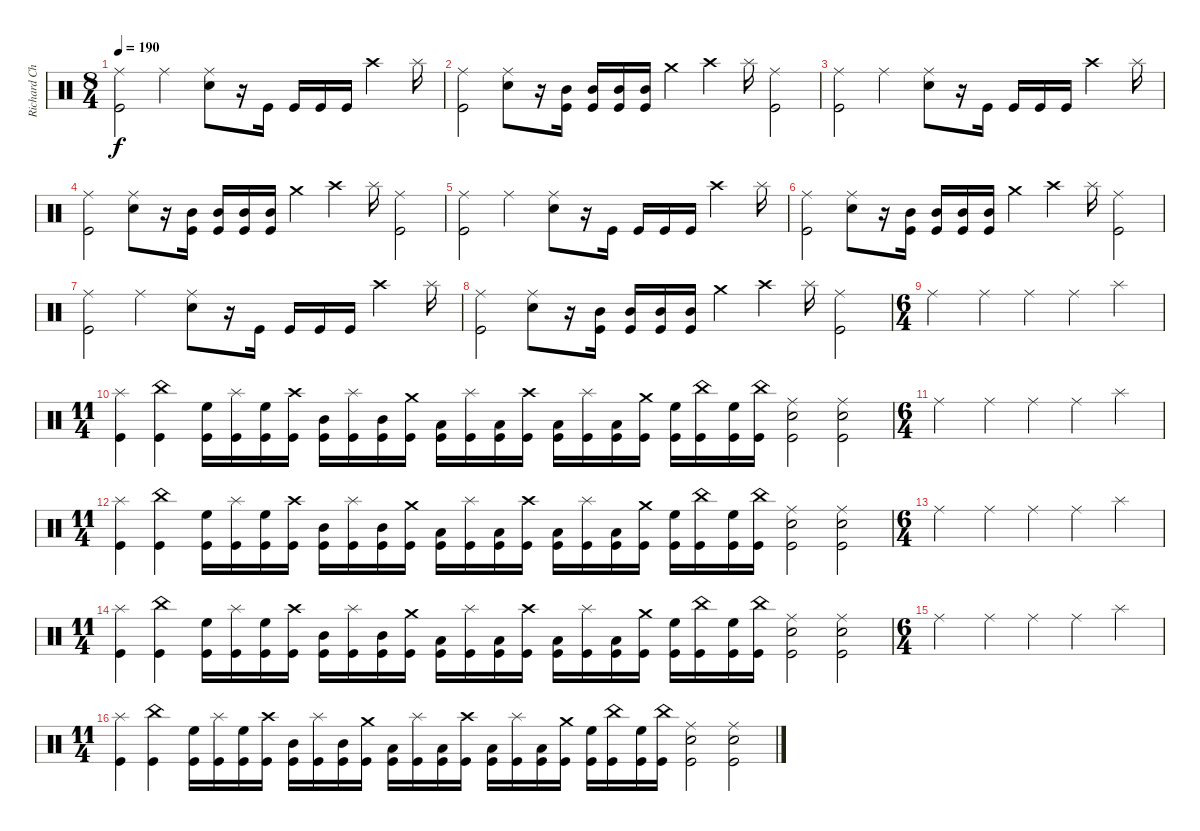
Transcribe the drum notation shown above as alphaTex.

\track ("Richard Christy" "Richard Ch") {instrument percussion}
\staff {score}
\articulation defaults
\ts (8 4)
\tempo 190
\clef neutral
\ks c
("Ride (middle)" "Kick (hit)").2{dy f} "Ride (middle)".2 ("Ride (middle)" "Electric Snare (hit)").8 r.16 "Kick (hit)".16 "Kick (hit)".16 "Kick (hit)".16 "Kick (hit)".16 "Crash high (hit)".2 "Splash (hit)".16 |
("Ride (middle)" "Kick (hit)").2 ("Ride (middle)" "Electric Snare (hit)").8 r.16 ("Mid Tom (hit)" "Kick (hit)").16 ("Mid Tom (hit)" "Kick (hit)").16 ("Mid Tom (hit)" "Kick (hit)").16 ("Mid Tom (hit)" "Kick (hit)").16 "Crash medium (hit)".4 "Crash high (hit)".4 "Splash (hit)".16 ("Ride (middle)" "Kick (hit)").2 |
("Ride (middle)" "Kick (hit)").2 "Ride (middle)".2 ("Ride (middle)" "Electric Snare (hit)").8 r.16 "Kick (hit)".16 "Kick (hit)".16 "Kick (hit)".16 "Kick (hit)".16 "Crash high (hit)".2 "Splash (hit)".16 |
("Ride (middle)" "Kick (hit)").2 ("Ride (middle)" "Electric Snare (hit)").8 r.16 ("Mid Tom (hit)" "Kick (hit)").16 ("Mid Tom (hit)" "Kick (hit)").16 ("Mid Tom (hit)" "Kick (hit)").16 ("Mid Tom (hit)" "Kick (hit)").16 "Crash medium (hit)".4 "Crash high (hit)".4 "Splash (hit)".16 ("Ride (middle)" "Kick (hit)").2 |
("Ride (middle)" "Kick (hit)").2 "Ride (middle)".2 ("Ride (middle)" "Electric Snare (hit)").8 r.16 "Kick (hit)".16 "Kick (hit)".16 "Kick (hit)".16 "Kick (hit)".16 "Crash high (hit)".2 "Splash (hit)".16 |
("Ride (middle)" "Kick (hit)").2 ("Ride (middle)" "Electric Snare (hit)").8 r.16 ("Mid Tom (hit)" "Kick (hit)").16 ("Mid Tom (hit)" "Kick (hit)").16 ("Mid Tom (hit)" "Kick (hit)").16 ("Mid Tom (hit)" "Kick (hit)").16 "Crash medium (hit)".4 "Crash high (hit)".4 "Splash (hit)".16 ("Ride (middle)" "Kick (hit)").2 |
("Ride (middle)" "Kick (hit)").2 "Ride (middle)".2 ("Ride (middle)" "Electric Snare (hit)").8 r.16 "Kick (hit)".16 "Kick (hit)".16 "Kick (hit)".16 "Kick (hit)".16 "Crash high (hit)".2 "Splash (hit)".16 |
("Ride (middle)" "Kick (hit)").2 ("Ride (middle)" "Electric Snare (hit)").8 r.16 ("Mid Tom (hit)" "Kick (hit)").16 ("Mid Tom (hit)" "Kick (hit)").16 ("Mid Tom (hit)" "Kick (hit)").16 ("Mid Tom (hit)" "Kick (hit)").16 "Crash medium (hit)".4 "Crash high (hit)".4 "Splash (hit)".16 ("Ride (middle)" "Kick (hit)").2 |
\ts (6 4)
"Ride (middle)".2 "Ride (middle)".4 "Ride (middle)".4 "Ride (middle)".4 "Splash (hit)".4 |
\ts (11 4)
("Splash (hit)" "Kick (hit)").4 ("China (hit)" "Kick (hit)").4 ("High Floor Tom (hit)" "Kick (hit)").16 ("Splash (hit)" "Kick (hit)").16 ("High Floor Tom (hit)" "Kick (hit)").16 ("Crash high (hit)" "Kick (hit)").16 ("Mid Tom (hit)" "Kick (hit)").16 ("Splash (hit)" "Kick (hit)").16 ("Mid Tom (hit)" "Kick (hit)").16 ("Crash medium (hit)" "Kick (hit)").16 ("Low Tom (hit)" "Kick (hit)").16 ("Splash (hit)" "Kick (hit)").16 ("Low Tom (hit)" "Kick (hit)").16 ("Crash high (hit)" "Kick (hit)").16 ("Low Floor Tom (hit)" "Kick (hit)").16 ("Splash (hit)" "Kick (hit)").16 ("Low Floor Tom (hit)" "Kick (hit)").16 ("Crash medium (hit)" "Kick (hit)").16 ("High Floor Tom (hit)" "Kick (hit)").16 ("China (hit)" "Kick (hit)").16 ("High Floor Tom (hit)" "Kick (hit)").16 ("China (hit)" "Kick (hit)").16 ("Ride (middle)" "Electric Snare (hit)" "Kick (hit)").2 ("Ride (middle)" "Electric Snare (hit)" "Kick (hit)").2 |
\ts (6 4)
"Ride (middle)".2 "Ride (middle)".4 "Ride (middle)".4 "Ride (middle)".4 "Splash (hit)".4 |
\ts (11 4)
("Splash (hit)" "Kick (hit)").4 ("China (hit)" "Kick (hit)").4 ("High Floor Tom (hit)" "Kick (hit)").16 ("Splash (hit)" "Kick (hit)").16 ("High Floor Tom (hit)" "Kick (hit)").16 ("Crash high (hit)" "Kick (hit)").16 ("Mid Tom (hit)" "Kick (hit)").16 ("Splash (hit)" "Kick (hit)").16 ("Mid Tom (hit)" "Kick (hit)").16 ("Crash medium (hit)" "Kick (hit)").16 ("Low Tom (hit)" "Kick (hit)").16 ("Splash (hit)" "Kick (hit)").16 ("Low Tom (hit)" "Kick (hit)").16 ("Crash high (hit)" "Kick (hit)").16 ("Low Floor Tom (hit)" "Kick (hit)").16 ("Splash (hit)" "Kick (hit)").16 ("Low Floor Tom (hit)" "Kick (hit)").16 ("Crash medium (hit)" "Kick (hit)").16 ("High Floor Tom (hit)" "Kick (hit)").16 ("China (hit)" "Kick (hit)").16 ("High Floor Tom (hit)" "Kick (hit)").16 ("China (hit)" "Kick (hit)").16 ("Ride (middle)" "Electric Snare (hit)" "Kick (hit)").2 ("Ride (middle)" "Electric Snare (hit)" "Kick (hit)").2 |
\ts (6 4)
"Ride (middle)".2 "Ride (middle)".4 "Ride (middle)".4 "Ride (middle)".4 "Splash (hit)".4 |
\ts (11 4)
("Splash (hit)" "Kick (hit)").4 ("China (hit)" "Kick (hit)").4 ("High Floor Tom (hit)" "Kick (hit)").16 ("Splash (hit)" "Kick (hit)").16 ("High Floor Tom (hit)" "Kick (hit)").16 ("Crash high (hit)" "Kick (hit)").16 ("Mid Tom (hit)" "Kick (hit)").16 ("Splash (hit)" "Kick (hit)").16 ("Mid Tom (hit)" "Kick (hit)").16 ("Crash medium (hit)" "Kick (hit)").16 ("Low Tom (hit)" "Kick (hit)").16 ("Splash (hit)" "Kick (hit)").16 ("Low Tom (hit)" "Kick (hit)").16 ("Crash high (hit)" "Kick (hit)").16 ("Low Floor Tom (hit)" "Kick (hit)").16 ("Splash (hit)" "Kick (hit)").16 ("Low Floor Tom (hit)" "Kick (hit)").16 ("Crash medium (hit)" "Kick (hit)").16 ("High Floor Tom (hit)" "Kick (hit)").16 ("China (hit)" "Kick (hit)").16 ("High Floor Tom (hit)" "Kick (hit)").16 ("China (hit)" "Kick (hit)").16 ("Ride (middle)" "Electric Snare (hit)" "Kick (hit)").2 ("Ride (middle)" "Electric Snare (hit)" "Kick (hit)").2 |
\ts (6 4)
"Ride (middle)".2 "Ride (middle)".4 "Ride (middle)".4 "Ride (middle)".4 "Splash (hit)".4 |
\ts (11 4)
("Splash (hit)" "Kick (hit)").4 ("China (hit)" "Kick (hit)").4 ("High Floor Tom (hit)" "Kick (hit)").16 ("Splash (hit)" "Kick (hit)").16 ("High Floor Tom (hit)" "Kick (hit)").16 ("Crash high (hit)" "Kick (hit)").16 ("Mid Tom (hit)" "Kick (hit)").16 ("Splash (hit)" "Kick (hit)").16 ("Mid Tom (hit)" "Kick (hit)").16 ("Crash medium (hit)" "Kick (hit)").16 ("Low Tom (hit)" "Kick (hit)").16 ("Splash (hit)" "Kick (hit)").16 ("Low Tom (hit)" "Kick (hit)").16 ("Crash high (hit)" "Kick (hit)").16 ("Low Floor Tom (hit)" "Kick (hit)").16 ("Splash (hit)" "Kick (hit)").16 ("Low Floor Tom (hit)" "Kick (hit)").16 ("Crash medium (hit)" "Kick (hit)").16 ("High Floor Tom (hit)" "Kick (hit)").16 ("China (hit)" "Kick (hit)").16 ("High Floor Tom (hit)" "Kick (hit)").16 ("China (hit)" "Kick (hit)").16 ("Ride (middle)" "Electric Snare (hit)" "Kick (hit)").2 ("Ride (middle)" "Electric Snare (hit)" "Kick (hit)").2
